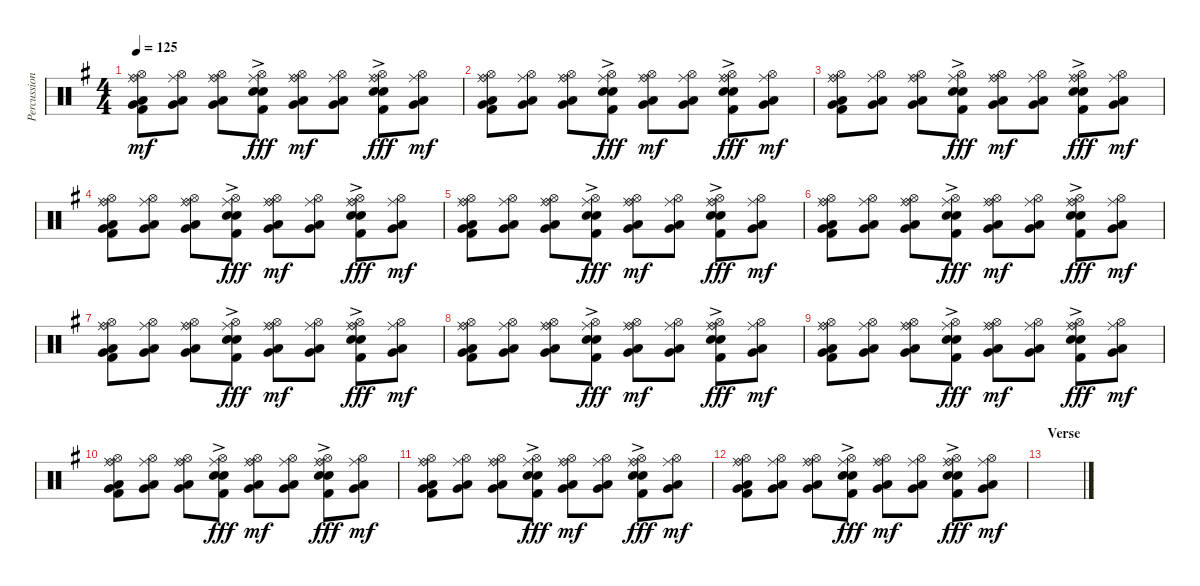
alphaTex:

\track ("Percussion" "Percussion") {instrument percussion}
\staff {score}
\articulation defaults
\ts (4 4)
\tempo 125
\clef neutral
\ks g
("Ride (bell)" "Hi-Hat (open)" "Ride (middle)" "Low Tom (hit)" "Very Low Tom (hit)" "Kick (hit) 2").8{dy mf} ("Hi-Hat (open)" "Ride (middle)" "Low Tom (hit)" "Very Low Tom (hit)").8 ("Ride (bell)" "Hi-Hat (open)" "Ride (middle)" "Low Tom (hit)" "Very Low Tom (hit)").8 ("Hi-Hat (open)" "Ride (middle)" "Electric Snare (hit)"{ac} "Snare (hit) 2"{ac} "Kick (hit) 2").8{dy fff} ("Ride (bell)" "Hi-Hat (open)" "Ride (middle)" "Low Tom (hit)" "Very Low Tom (hit)").8{dy mf} ("Hi-Hat (open)" "Ride (middle)" "Low Tom (hit)" "Very Low Tom (hit)").8 ("Ride (bell)" "Hi-Hat (open)" "Ride (middle)" "Electric Snare (hit)"{ac} "Snare (hit) 2"{ac} "Kick (hit) 2").8{dy fff} ("Hi-Hat (open)" "Ride (middle)" "Low Tom (hit)" "Very Low Tom (hit)").8{dy mf} |
("Ride (bell)" "Hi-Hat (open)" "Ride (middle)" "Low Tom (hit)" "Very Low Tom (hit)" "Kick (hit) 2").8 ("Hi-Hat (open)" "Ride (middle)" "Low Tom (hit)" "Very Low Tom (hit)").8 ("Ride (bell)" "Hi-Hat (open)" "Ride (middle)" "Low Tom (hit)" "Very Low Tom (hit)").8 ("Hi-Hat (open)" "Ride (middle)" "Electric Snare (hit)"{ac} "Snare (hit) 2"{ac} "Kick (hit) 2").8{dy fff} ("Ride (bell)" "Hi-Hat (open)" "Ride (middle)" "Low Tom (hit)" "Very Low Tom (hit)").8{dy mf} ("Hi-Hat (open)" "Ride (middle)" "Low Tom (hit)" "Very Low Tom (hit)").8 ("Ride (bell)" "Hi-Hat (open)" "Ride (middle)" "Electric Snare (hit)"{ac} "Snare (hit) 2"{ac} "Kick (hit) 2").8{dy fff} ("Hi-Hat (open)" "Ride (middle)" "Low Tom (hit)" "Very Low Tom (hit)").8{dy mf} |
("Ride (bell)" "Hi-Hat (open)" "Ride (middle)" "Low Tom (hit)" "Very Low Tom (hit)" "Kick (hit) 2").8 ("Hi-Hat (open)" "Ride (middle)" "Low Tom (hit)" "Very Low Tom (hit)").8 ("Ride (bell)" "Hi-Hat (open)" "Ride (middle)" "Low Tom (hit)" "Very Low Tom (hit)").8 ("Hi-Hat (open)" "Ride (middle)" "Electric Snare (hit)"{ac} "Snare (hit) 2"{ac} "Kick (hit) 2").8{dy fff} ("Ride (bell)" "Hi-Hat (open)" "Ride (middle)" "Low Tom (hit)" "Very Low Tom (hit)").8{dy mf} ("Hi-Hat (open)" "Ride (middle)" "Low Tom (hit)" "Very Low Tom (hit)").8 ("Ride (bell)" "Hi-Hat (open)" "Ride (middle)" "Electric Snare (hit)"{ac} "Snare (hit) 2"{ac} "Kick (hit) 2").8{dy fff} ("Hi-Hat (open)" "Ride (middle)" "Low Tom (hit)" "Very Low Tom (hit)").8{dy mf} |
("Ride (bell)" "Hi-Hat (open)" "Ride (middle)" "Low Tom (hit)" "Very Low Tom (hit)" "Kick (hit) 2").8 ("Hi-Hat (open)" "Ride (middle)" "Low Tom (hit)" "Very Low Tom (hit)").8 ("Ride (bell)" "Hi-Hat (open)" "Ride (middle)" "Low Tom (hit)" "Very Low Tom (hit)").8 ("Hi-Hat (open)" "Ride (middle)" "Electric Snare (hit)"{ac} "Snare (hit) 2"{ac} "Kick (hit) 2").8{dy fff} ("Ride (bell)" "Hi-Hat (open)" "Ride (middle)" "Low Tom (hit)" "Very Low Tom (hit)").8{dy mf} ("Hi-Hat (open)" "Ride (middle)" "Low Tom (hit)" "Very Low Tom (hit)").8 ("Ride (bell)" "Hi-Hat (open)" "Ride (middle)" "Electric Snare (hit)"{ac} "Snare (hit) 2"{ac} "Kick (hit) 2").8{dy fff} ("Hi-Hat (open)" "Ride (middle)" "Low Tom (hit)" "Very Low Tom (hit)").8{dy mf} |
("Ride (bell)" "Hi-Hat (open)" "Ride (middle)" "Low Tom (hit)" "Very Low Tom (hit)" "Kick (hit) 2").8 ("Hi-Hat (open)" "Ride (middle)" "Low Tom (hit)" "Very Low Tom (hit)").8 ("Ride (bell)" "Hi-Hat (open)" "Ride (middle)" "Low Tom (hit)" "Very Low Tom (hit)").8 ("Hi-Hat (open)" "Ride (middle)" "Electric Snare (hit)"{ac} "Snare (hit) 2"{ac} "Kick (hit) 2").8{dy fff} ("Ride (bell)" "Hi-Hat (open)" "Ride (middle)" "Low Tom (hit)" "Very Low Tom (hit)").8{dy mf} ("Hi-Hat (open)" "Ride (middle)" "Low Tom (hit)" "Very Low Tom (hit)").8 ("Ride (bell)" "Hi-Hat (open)" "Ride (middle)" "Electric Snare (hit)"{ac} "Snare (hit) 2"{ac} "Kick (hit) 2").8{dy fff} ("Hi-Hat (open)" "Ride (middle)" "Low Tom (hit)" "Very Low Tom (hit)").8{dy mf} |
("Ride (bell)" "Hi-Hat (open)" "Ride (middle)" "Low Tom (hit)" "Very Low Tom (hit)" "Kick (hit) 2").8 ("Hi-Hat (open)" "Ride (middle)" "Low Tom (hit)" "Very Low Tom (hit)").8 ("Ride (bell)" "Hi-Hat (open)" "Ride (middle)" "Low Tom (hit)" "Very Low Tom (hit)").8 ("Hi-Hat (open)" "Ride (middle)" "Electric Snare (hit)"{ac} "Snare (hit) 2"{ac} "Kick (hit) 2").8{dy fff} ("Ride (bell)" "Hi-Hat (open)" "Ride (middle)" "Low Tom (hit)" "Very Low Tom (hit)").8{dy mf} ("Hi-Hat (open)" "Ride (middle)" "Low Tom (hit)" "Very Low Tom (hit)").8 ("Ride (bell)" "Hi-Hat (open)" "Ride (middle)" "Electric Snare (hit)"{ac} "Snare (hit) 2"{ac} "Kick (hit) 2").8{dy fff} ("Hi-Hat (open)" "Ride (middle)" "Low Tom (hit)" "Very Low Tom (hit)").8{dy mf} |
("Ride (bell)" "Hi-Hat (open)" "Ride (middle)" "Low Tom (hit)" "Very Low Tom (hit)" "Kick (hit) 2").8 ("Hi-Hat (open)" "Ride (middle)" "Low Tom (hit)" "Very Low Tom (hit)").8 ("Ride (bell)" "Hi-Hat (open)" "Ride (middle)" "Low Tom (hit)" "Very Low Tom (hit)").8 ("Hi-Hat (open)" "Ride (middle)" "Electric Snare (hit)"{ac} "Snare (hit) 2"{ac} "Kick (hit) 2").8{dy fff} ("Ride (bell)" "Hi-Hat (open)" "Ride (middle)" "Low Tom (hit)" "Very Low Tom (hit)").8{dy mf} ("Hi-Hat (open)" "Ride (middle)" "Low Tom (hit)" "Very Low Tom (hit)").8 ("Ride (bell)" "Hi-Hat (open)" "Ride (middle)" "Electric Snare (hit)"{ac} "Snare (hit) 2"{ac} "Kick (hit) 2").8{dy fff} ("Hi-Hat (open)" "Ride (middle)" "Low Tom (hit)" "Very Low Tom (hit)").8{dy mf} |
("Ride (bell)" "Hi-Hat (open)" "Ride (middle)" "Low Tom (hit)" "Very Low Tom (hit)" "Kick (hit) 2").8 ("Hi-Hat (open)" "Ride (middle)" "Low Tom (hit)" "Very Low Tom (hit)").8 ("Ride (bell)" "Hi-Hat (open)" "Ride (middle)" "Low Tom (hit)" "Very Low Tom (hit)").8 ("Hi-Hat (open)" "Ride (middle)" "Electric Snare (hit)"{ac} "Snare (hit) 2"{ac} "Kick (hit) 2").8{dy fff} ("Ride (bell)" "Hi-Hat (open)" "Ride (middle)" "Low Tom (hit)" "Very Low Tom (hit)").8{dy mf} ("Hi-Hat (open)" "Ride (middle)" "Low Tom (hit)" "Very Low Tom (hit)").8 ("Ride (bell)" "Hi-Hat (open)" "Ride (middle)" "Electric Snare (hit)"{ac} "Snare (hit) 2"{ac} "Kick (hit) 2").8{dy fff} ("Hi-Hat (open)" "Ride (middle)" "Low Tom (hit)" "Very Low Tom (hit)").8{dy mf} |
("Ride (bell)" "Hi-Hat (open)" "Ride (middle)" "Low Tom (hit)" "Very Low Tom (hit)" "Kick (hit) 2").8 ("Hi-Hat (open)" "Ride (middle)" "Low Tom (hit)" "Very Low Tom (hit)").8 ("Ride (bell)" "Hi-Hat (open)" "Ride (middle)" "Low Tom (hit)" "Very Low Tom (hit)").8 ("Hi-Hat (open)" "Ride (middle)" "Electric Snare (hit)"{ac} "Snare (hit) 2"{ac} "Kick (hit) 2").8{dy fff} ("Ride (bell)" "Hi-Hat (open)" "Ride (middle)" "Low Tom (hit)" "Very Low Tom (hit)").8{dy mf} ("Hi-Hat (open)" "Ride (middle)" "Low Tom (hit)" "Very Low Tom (hit)").8 ("Ride (bell)" "Hi-Hat (open)" "Ride (middle)" "Electric Snare (hit)"{ac} "Snare (hit) 2"{ac} "Kick (hit) 2").8{dy fff} ("Hi-Hat (open)" "Ride (middle)" "Low Tom (hit)" "Very Low Tom (hit)").8{dy mf} |
("Ride (bell)" "Hi-Hat (open)" "Ride (middle)" "Low Tom (hit)" "Very Low Tom (hit)" "Kick (hit) 2").8 ("Hi-Hat (open)" "Ride (middle)" "Low Tom (hit)" "Very Low Tom (hit)").8 ("Ride (bell)" "Hi-Hat (open)" "Ride (middle)" "Low Tom (hit)" "Very Low Tom (hit)").8 ("Hi-Hat (open)" "Ride (middle)" "Electric Snare (hit)"{ac} "Snare (hit) 2"{ac} "Kick (hit) 2").8{dy fff} ("Ride (bell)" "Hi-Hat (open)" "Ride (middle)" "Low Tom (hit)" "Very Low Tom (hit)").8{dy mf} ("Hi-Hat (open)" "Ride (middle)" "Low Tom (hit)" "Very Low Tom (hit)").8 ("Ride (bell)" "Hi-Hat (open)" "Ride (middle)" "Electric Snare (hit)"{ac} "Snare (hit) 2"{ac} "Kick (hit) 2").8{dy fff} ("Hi-Hat (open)" "Ride (middle)" "Low Tom (hit)" "Very Low Tom (hit)").8{dy mf} |
("Ride (bell)" "Hi-Hat (open)" "Ride (middle)" "Low Tom (hit)" "Very Low Tom (hit)" "Kick (hit) 2").8 ("Hi-Hat (open)" "Ride (middle)" "Low Tom (hit)" "Very Low Tom (hit)").8 ("Ride (bell)" "Hi-Hat (open)" "Ride (middle)" "Low Tom (hit)" "Very Low Tom (hit)").8 ("Hi-Hat (open)" "Ride (middle)" "Electric Snare (hit)"{ac} "Snare (hit) 2"{ac} "Kick (hit) 2").8{dy fff} ("Ride (bell)" "Hi-Hat (open)" "Ride (middle)" "Low Tom (hit)" "Very Low Tom (hit)").8{dy mf} ("Hi-Hat (open)" "Ride (middle)" "Low Tom (hit)" "Very Low Tom (hit)").8 ("Ride (bell)" "Hi-Hat (open)" "Ride (middle)" "Electric Snare (hit)"{ac} "Snare (hit) 2"{ac} "Kick (hit) 2").8{dy fff} ("Hi-Hat (open)" "Ride (middle)" "Low Tom (hit)" "Very Low Tom (hit)").8{dy mf} |
("Ride (bell)" "Hi-Hat (open)" "Ride (middle)" "Low Tom (hit)" "Very Low Tom (hit)" "Kick (hit) 2").8 ("Hi-Hat (open)" "Ride (middle)" "Low Tom (hit)" "Very Low Tom (hit)").8 ("Ride (bell)" "Hi-Hat (open)" "Ride (middle)" "Low Tom (hit)" "Very Low Tom (hit)").8 ("Hi-Hat (open)" "Ride (middle)" "Electric Snare (hit)"{ac} "Snare (hit) 2"{ac} "Kick (hit) 2").8{dy fff} ("Ride (bell)" "Hi-Hat (open)" "Ride (middle)" "Low Tom (hit)" "Very Low Tom (hit)").8{dy mf} ("Hi-Hat (open)" "Ride (middle)" "Low Tom (hit)" "Very Low Tom (hit)").8 ("Ride (bell)" "Hi-Hat (open)" "Ride (middle)" "Electric Snare (hit)"{ac} "Snare (hit) 2"{ac} "Kick (hit) 2").8{dy fff} ("Hi-Hat (open)" "Ride (middle)" "Low Tom (hit)" "Very Low Tom (hit)").8{dy mf} |
\section ("" "Verse")
